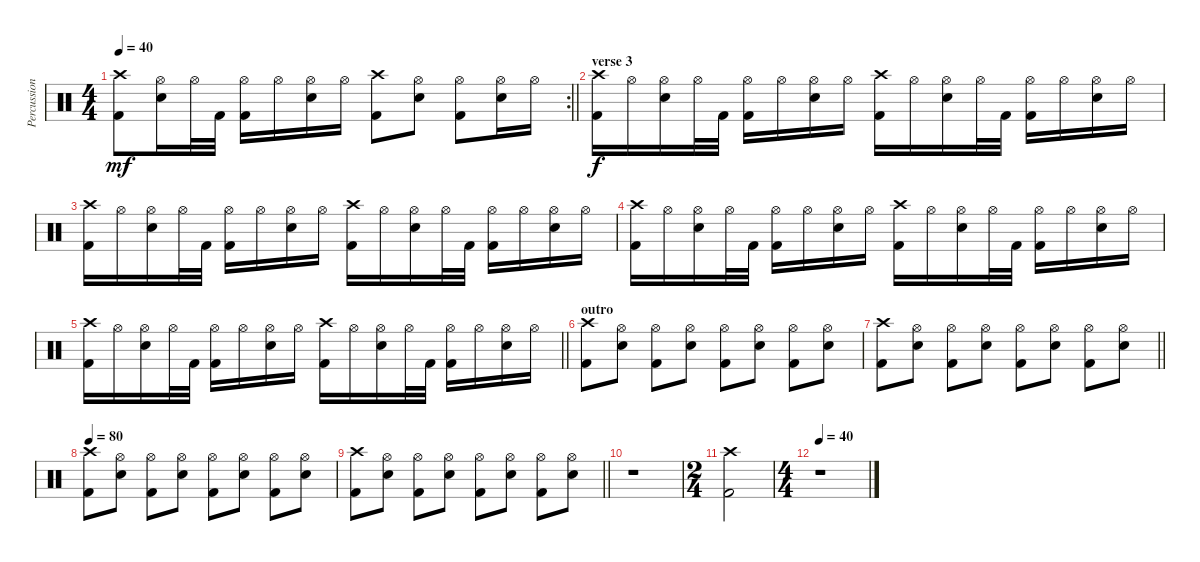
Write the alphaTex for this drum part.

\track ("Percussion" "Percussion") {instrument percussion}
\staff {score}
\articulation defaults
\rc 2
\ts (4 4)
\tempo 40
\clef neutral
\barLineRight lightlight
\ks c
("Crash high (hit)" "Kick (hit) 2").8{dy mf} ("Hi-Hat (open)" "Snare (hit) 2").16 "Hi-Hat (open)".32 "Kick (hit) 2".32 ("Hi-Hat (open)" "Kick (hit) 2").16 "Hi-Hat (open)".16 ("Hi-Hat (open)" "Snare (hit) 2").16 "Hi-Hat (open)".16 ("Crash high (hit)" "Kick (hit) 2").8 ("Hi-Hat (open)" "Snare (hit) 2").8 ("Hi-Hat (open)" "Kick (hit) 2").8 ("Hi-Hat (open)" "Snare (hit) 2").16 "Hi-Hat (open)".16 |
\section ("" "verse 3")
("Crash high (hit)" "Kick (hit) 2").16{dy f} "Hi-Hat (open)".16 ("Hi-Hat (open)" "Snare (hit) 2").16 "Hi-Hat (open)".32 "Kick (hit) 2".32 ("Hi-Hat (open)" "Kick (hit) 2").16 "Hi-Hat (open)".16 ("Hi-Hat (open)" "Snare (hit) 2").16 "Hi-Hat (open)".16 ("Crash high (hit)" "Kick (hit) 2").16 "Hi-Hat (open)".16 ("Hi-Hat (open)" "Snare (hit) 2").16 "Hi-Hat (open)".32 "Kick (hit) 2".32 ("Hi-Hat (open)" "Kick (hit) 2").16 "Hi-Hat (open)".16 ("Hi-Hat (open)" "Snare (hit) 2").16 "Hi-Hat (open)".16 |
("Crash high (hit)" "Kick (hit) 2").16 "Hi-Hat (open)".16 ("Hi-Hat (open)" "Snare (hit) 2").16 "Hi-Hat (open)".32 "Kick (hit) 2".32 ("Hi-Hat (open)" "Kick (hit) 2").16 "Hi-Hat (open)".16 ("Hi-Hat (open)" "Snare (hit) 2").16 "Hi-Hat (open)".16 ("Crash high (hit)" "Kick (hit) 2").16 "Hi-Hat (open)".16 ("Hi-Hat (open)" "Snare (hit) 2").16 "Hi-Hat (open)".32 "Kick (hit) 2".32 ("Hi-Hat (open)" "Kick (hit) 2").16 "Hi-Hat (open)".16 ("Hi-Hat (open)" "Snare (hit) 2").16 "Hi-Hat (open)".16 |
("Crash high (hit)" "Kick (hit) 2").16 "Hi-Hat (open)".16 ("Hi-Hat (open)" "Snare (hit) 2").16 "Hi-Hat (open)".32 "Kick (hit) 2".32 ("Hi-Hat (open)" "Kick (hit) 2").16 "Hi-Hat (open)".16 ("Hi-Hat (open)" "Snare (hit) 2").16 "Hi-Hat (open)".16 ("Crash high (hit)" "Kick (hit) 2").16 "Hi-Hat (open)".16 ("Hi-Hat (open)" "Snare (hit) 2").16 "Hi-Hat (open)".32 "Kick (hit) 2".32 ("Hi-Hat (open)" "Kick (hit) 2").16 "Hi-Hat (open)".16 ("Hi-Hat (open)" "Snare (hit) 2").16 "Hi-Hat (open)".16 |
\barLineRight lightlight
("Crash high (hit)" "Kick (hit) 2").16 "Hi-Hat (open)".16 ("Hi-Hat (open)" "Snare (hit) 2").16 "Hi-Hat (open)".32 "Kick (hit) 2".32 ("Hi-Hat (open)" "Kick (hit) 2").16 "Hi-Hat (open)".16 ("Hi-Hat (open)" "Snare (hit) 2").16 "Hi-Hat (open)".16 ("Crash high (hit)" "Kick (hit) 2").16 "Hi-Hat (open)".16 ("Hi-Hat (open)" "Snare (hit) 2").16 "Hi-Hat (open)".32 "Kick (hit) 2".32 ("Hi-Hat (open)" "Kick (hit) 2").16 "Hi-Hat (open)".16 ("Hi-Hat (open)" "Snare (hit) 2").16 "Hi-Hat (open)".16 |
\section ("" "outro")
("Crash high (hit)" "Kick (hit) 2").8{volume 8} ("Hi-Hat (open)" "Snare (hit) 2").8 ("Hi-Hat (open)" "Kick (hit) 2").8 ("Hi-Hat (open)" "Snare (hit) 2").8 ("Hi-Hat (open)" "Kick (hit) 2").8 ("Hi-Hat (open)" "Snare (hit) 2").8 ("Hi-Hat (open)" "Kick (hit) 2").8 ("Hi-Hat (open)" "Snare (hit) 2").8 |
\barLineRight lightlight
("Crash high (hit)" "Kick (hit) 2").8 ("Hi-Hat (open)" "Snare (hit) 2").8 ("Hi-Hat (open)" "Kick (hit) 2").8 ("Hi-Hat (open)" "Snare (hit) 2").8 ("Hi-Hat (open)" "Kick (hit) 2").8 ("Hi-Hat (open)" "Snare (hit) 2").8 ("Hi-Hat (open)" "Kick (hit) 2").8 ("Hi-Hat (open)" "Snare (hit) 2").8 |
\tempo 80
("Crash high (hit)" "Kick (hit) 2").8{volume 0} ("Hi-Hat (open)" "Snare (hit) 2").8 ("Hi-Hat (open)" "Kick (hit) 2").8 ("Hi-Hat (open)" "Snare (hit) 2").8 ("Hi-Hat (open)" "Kick (hit) 2").8 ("Hi-Hat (open)" "Snare (hit) 2").8 ("Hi-Hat (open)" "Kick (hit) 2").8 ("Hi-Hat (open)" "Snare (hit) 2").8 |
\barLineRight lightlight
("Crash high (hit)" "Kick (hit) 2").8 ("Hi-Hat (open)" "Snare (hit) 2").8 ("Hi-Hat (open)" "Kick (hit) 2").8 ("Hi-Hat (open)" "Snare (hit) 2").8 ("Hi-Hat (open)" "Kick (hit) 2").8 ("Hi-Hat (open)" "Snare (hit) 2").8 ("Hi-Hat (open)" "Kick (hit) 2").8 ("Hi-Hat (open)" "Snare (hit) 2").8 |
r.1 |
\ts (2 4)
("Crash high (hit)" "Kick (hit) 2").2 |
\ts (4 4)
\tempo 40
r.1
